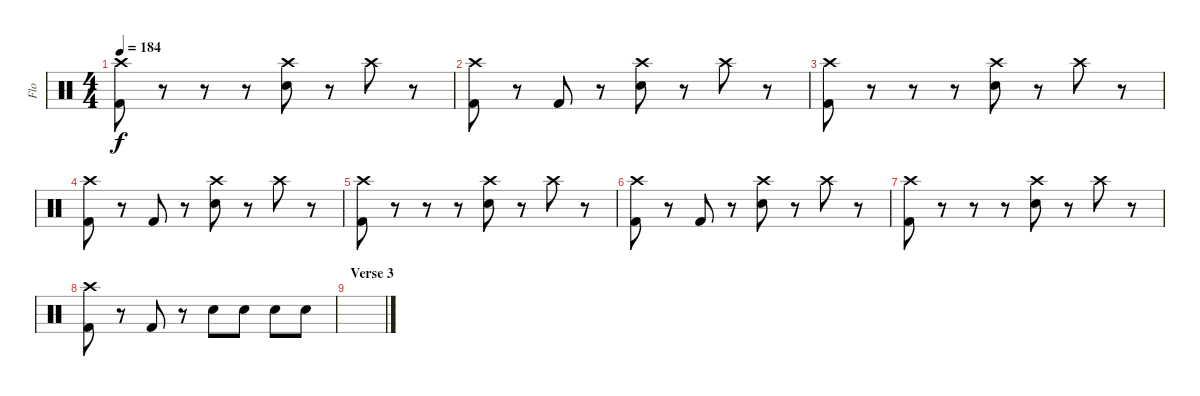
\track ("Flo" "Flo") {instrument percussion}
\staff {score}
\articulation defaults
\ts (4 4)
\tempo 184
\clef neutral
\ks c
("Crash high (hit)" "Kick (hit) 2").8{dy f} r.8 r.8 r.8 ("Crash high (hit)" "Electric Snare (hit)").8 r.8 "Crash high (hit)".8 r.8 |
("Crash high (hit)" "Kick (hit) 2").8 r.8 "Kick (hit) 2".8 r.8 ("Crash high (hit)" "Electric Snare (hit)").8 r.8 "Crash high (hit)".8 r.8 |
("Crash high (hit)" "Kick (hit) 2").8 r.8 r.8 r.8 ("Crash high (hit)" "Electric Snare (hit)").8 r.8 "Crash high (hit)".8 r.8 |
("Crash high (hit)" "Kick (hit) 2").8 r.8 "Kick (hit) 2".8 r.8 ("Crash high (hit)" "Electric Snare (hit)").8 r.8 "Crash high (hit)".8 r.8 |
("Crash high (hit)" "Kick (hit) 2").8 r.8 r.8 r.8 ("Crash high (hit)" "Electric Snare (hit)").8 r.8 "Crash high (hit)".8 r.8 |
("Crash high (hit)" "Kick (hit) 2").8 r.8 "Kick (hit) 2".8 r.8 ("Crash high (hit)" "Electric Snare (hit)").8 r.8 "Crash high (hit)".8 r.8 |
("Crash high (hit)" "Kick (hit) 2").8 r.8 r.8 r.8 ("Crash high (hit)" "Electric Snare (hit)").8 r.8 "Crash high (hit)".8 r.8 |
("Crash high (hit)" "Kick (hit) 2").8 r.8 "Kick (hit) 2".8 r.8 "Electric Snare (hit)".8 "Electric Snare (hit)".8 "Electric Snare (hit)".8 "Electric Snare (hit)".8 |
\section ("" "Verse 3")
